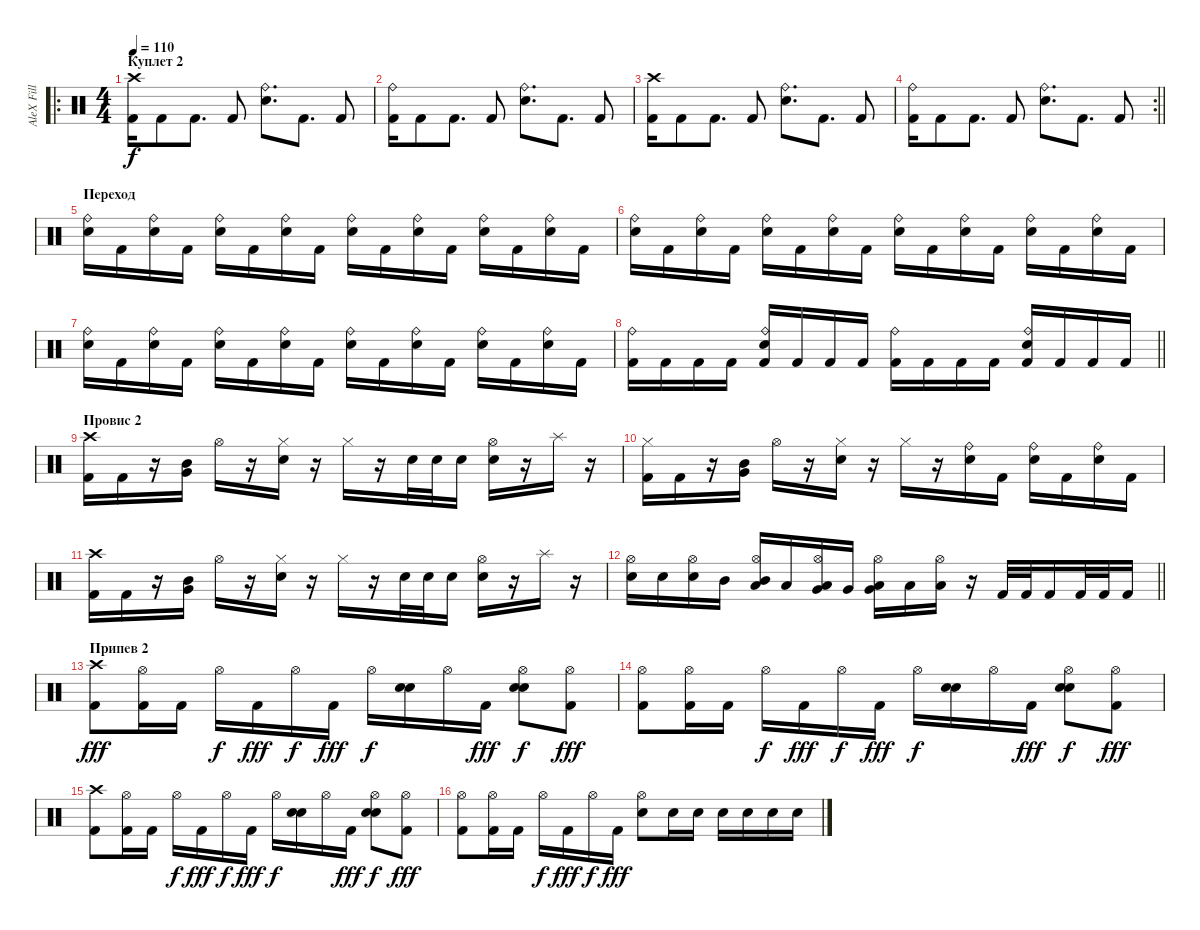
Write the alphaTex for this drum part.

\track ("AleX Fill" "AleX Fill") {instrument percussion}
\staff {score}
\articulation defaults
\ro
\ts (4 4)
\section ("" "Куплет 2")
\tempo 110
\clef neutral
\ks c
("Crash high (hit)" "Kick (hit) 2").16{dy f} "Kick (hit) 2".8 "Kick (hit) 2".8{d} "Kick (hit) 2".8 ("Ride (bell)" "Electric Snare (hit)").8{d} "Kick (hit) 2".8{d} "Kick (hit) 2".8 |
("Ride (bell)" "Kick (hit) 2").16 "Kick (hit) 2".8 "Kick (hit) 2".8{d} "Kick (hit) 2".8 ("Ride (bell)" "Electric Snare (hit)").8{d} "Kick (hit) 2".8{d} "Kick (hit) 2".8 |
("Crash high (hit)" "Kick (hit) 2").16 "Kick (hit) 2".8 "Kick (hit) 2".8{d} "Kick (hit) 2".8 ("Ride (bell)" "Electric Snare (hit)").8{d} "Kick (hit) 2".8{d} "Kick (hit) 2".8 |
\rc 2
\barLineRight lightlight
("Ride (bell)" "Kick (hit) 2").16 "Kick (hit) 2".8 "Kick (hit) 2".8{d} "Kick (hit) 2".8 ("Ride (bell)" "Electric Snare (hit)").8{d} "Kick (hit) 2".8{d} "Kick (hit) 2".8 |
\section ("" "Переход")
("Ride (bell)" "Electric Snare (hit)").16 "Kick (hit) 2".16 ("Ride (bell)" "Electric Snare (hit)").16 "Kick (hit) 2".16 ("Ride (bell)" "Electric Snare (hit)").16 "Kick (hit) 2".16 ("Ride (bell)" "Electric Snare (hit)").16 "Kick (hit) 2".16 ("Ride (bell)" "Electric Snare (hit)").16 "Kick (hit) 2".16 ("Ride (bell)" "Electric Snare (hit)").16 "Kick (hit) 2".16 ("Ride (bell)" "Electric Snare (hit)").16 "Kick (hit) 2".16 ("Ride (bell)" "Electric Snare (hit)").16 "Kick (hit) 2".16 |
("Ride (bell)" "Electric Snare (hit)").16 "Kick (hit) 2".16 ("Ride (bell)" "Electric Snare (hit)").16 "Kick (hit) 2".16 ("Ride (bell)" "Electric Snare (hit)").16 "Kick (hit) 2".16 ("Ride (bell)" "Electric Snare (hit)").16 "Kick (hit) 2".16 ("Ride (bell)" "Electric Snare (hit)").16 "Kick (hit) 2".16 ("Ride (bell)" "Electric Snare (hit)").16 "Kick (hit) 2".16 ("Ride (bell)" "Electric Snare (hit)").16 "Kick (hit) 2".16 ("Ride (bell)" "Electric Snare (hit)").16 "Kick (hit) 2".16 |
("Ride (bell)" "Electric Snare (hit)").16 "Kick (hit) 2".16 ("Ride (bell)" "Electric Snare (hit)").16 "Kick (hit) 2".16 ("Ride (bell)" "Electric Snare (hit)").16 "Kick (hit) 2".16 ("Ride (bell)" "Electric Snare (hit)").16 "Kick (hit) 2".16 ("Ride (bell)" "Electric Snare (hit)").16 "Kick (hit) 2".16 ("Ride (bell)" "Electric Snare (hit)").16 "Kick (hit) 2".16 ("Ride (bell)" "Electric Snare (hit)").16 "Kick (hit) 2".16 ("Ride (bell)" "Electric Snare (hit)").16 "Kick (hit) 2".16 |
\barLineRight lightlight
("Ride (bell)" "Kick (hit) 2").16 "Kick (hit) 2".16 "Kick (hit) 2".16 "Kick (hit) 2".16 ("Ride (bell)" "Electric Snare (hit)" "Kick (hit) 2").16 "Kick (hit) 2".16 "Kick (hit) 2".16 "Kick (hit) 2".16 ("Ride (bell)" "Kick (hit) 2").16 "Kick (hit) 2".16 "Kick (hit) 2".16 "Kick (hit) 2".16 ("Ride (bell)" "Electric Snare (hit)" "Kick (hit) 2").16 "Kick (hit) 2".16 "Kick (hit) 2".16 "Kick (hit) 2".16 |
\section ("" "Провис 2")
("Crash high (hit)" "Kick (hit) 2").16 "Kick (hit) 2".16 r.16 ("Mid Tom (hit)" "Very Low Tom (hit)").16 "Hi-Hat (open)".16 r.16 ("Hi-Hat (closed)" "Electric Snare (hit)").16 r.16 "Hi-Hat (closed)".16 r.16 "Electric Snare (hit)".32 "Electric Snare (hit)".32 "Electric Snare (hit)".16 ("Hi-Hat (open)" "Electric Snare (hit)").16 r.16 "Splash (hit)".16 r.16 |
("Hi-Hat (closed)" "Kick (hit) 2").16 "Kick (hit) 2".16 r.16 ("Mid Tom (hit)" "Very Low Tom (hit)").16 "Hi-Hat (open)".16 r.16 ("Hi-Hat (closed)" "Electric Snare (hit)").16 r.16 "Hi-Hat (closed)".16 r.16 ("Ride (bell)" "Electric Snare (hit)").16 "Kick (hit) 2".16 ("Ride (bell)" "Electric Snare (hit)").16 "Kick (hit) 2".16 ("Ride (bell)" "Electric Snare (hit)").16 "Kick (hit) 2".16 |
("Crash high (hit)" "Kick (hit) 2").16 "Kick (hit) 2".16 r.16 ("Mid Tom (hit)" "Very Low Tom (hit)").16 "Hi-Hat (open)".16 r.16 ("Hi-Hat (closed)" "Electric Snare (hit)").16 r.16 "Hi-Hat (closed)".16 r.16 "Electric Snare (hit)".32 "Electric Snare (hit)".32 "Electric Snare (hit)".16 ("Hi-Hat (open)" "Electric Snare (hit)").16 r.16 "Splash (hit)".16 r.16 |
\barLineRight lightlight
("Hi-Hat (open)" "Electric Snare (hit)").16 "Electric Snare (hit)".16 ("Hi-Hat (open)" "Electric Snare (hit)").16 "Mid Tom (hit)".16 ("Hi-Hat (open)" "Low Tom (hit)" "Mid Tom (hit)").16 "Low Tom (hit)".16 ("Hi-Hat (open)" "Very Low Tom (hit)" "Low Tom (hit)").16 "Very Low Tom (hit)".16 ("Hi-Hat (open)" "Low Floor Tom (hit)" "Very Low Tom (hit)").16 "Low Floor Tom (hit)".16 ("Hi-Hat (open)" "Low Floor Tom (hit)").16 r.16 "Kick (hit) 2".32 "Kick (hit) 2".32 "Kick (hit) 2".16 "Kick (hit) 2".32 "Kick (hit) 2".32 "Kick (hit) 2".16 |
\section ("" "Припев 2")
("Crash high (hit)" "Kick (hit) 2").8{dy fff} ("Hi-Hat (open)" "Kick (hit) 2").16 "Kick (hit) 2".16 "Hi-Hat (open)".16{dy f} "Kick (hit) 2".16{dy fff} "Hi-Hat (open)".16{dy f} "Kick (hit) 2".16{dy fff} "Hi-Hat (open)".16{dy f} ("Electric Snare (hit)" "Electric Snare (hit)").16 "Hi-Hat (open)".16 "Kick (hit) 2".16{dy fff} ("Hi-Hat (open)" "Electric Snare (hit)" "Electric Snare (hit)").8{dy f} ("Hi-Hat (open)" "Kick (hit) 2").8{dy fff} |
("Hi-Hat (open)" "Kick (hit) 2").8 ("Hi-Hat (open)" "Kick (hit) 2").16 "Kick (hit) 2".16 "Hi-Hat (open)".16{dy f} "Kick (hit) 2".16{dy fff} "Hi-Hat (open)".16{dy f} "Kick (hit) 2".16{dy fff} "Hi-Hat (open)".16{dy f} ("Electric Snare (hit)" "Electric Snare (hit)").16 "Hi-Hat (open)".16 "Kick (hit) 2".16{dy fff} ("Hi-Hat (open)" "Electric Snare (hit)" "Electric Snare (hit)").8{dy f} ("Hi-Hat (open)" "Kick (hit) 2").8{dy fff} |
("Crash high (hit)" "Kick (hit) 2").8 ("Hi-Hat (open)" "Kick (hit) 2").16 "Kick (hit) 2".16 "Hi-Hat (open)".16{dy f} "Kick (hit) 2".16{dy fff} "Hi-Hat (open)".16{dy f} "Kick (hit) 2".16{dy fff} "Hi-Hat (open)".16{dy f} ("Electric Snare (hit)" "Electric Snare (hit)").16 "Hi-Hat (open)".16 "Kick (hit) 2".16{dy fff} ("Hi-Hat (open)" "Electric Snare (hit)" "Electric Snare (hit)").8{dy f} ("Hi-Hat (open)" "Kick (hit) 2").8{dy fff} |
("Hi-Hat (open)" "Kick (hit) 2").8 ("Hi-Hat (open)" "Kick (hit) 2").16 "Kick (hit) 2".16 "Hi-Hat (open)".16{dy f} "Kick (hit) 2".16{dy fff} "Hi-Hat (open)".16{dy f} "Kick (hit) 2".16{dy fff} ("Hi-Hat (open)" "Electric Snare (hit)").8 "Electric Snare (hit)".16 "Electric Snare (hit)".16 "Electric Snare (hit)".16 "Electric Snare (hit)".16 "Electric Snare (hit)".16 "Electric Snare (hit)".16
